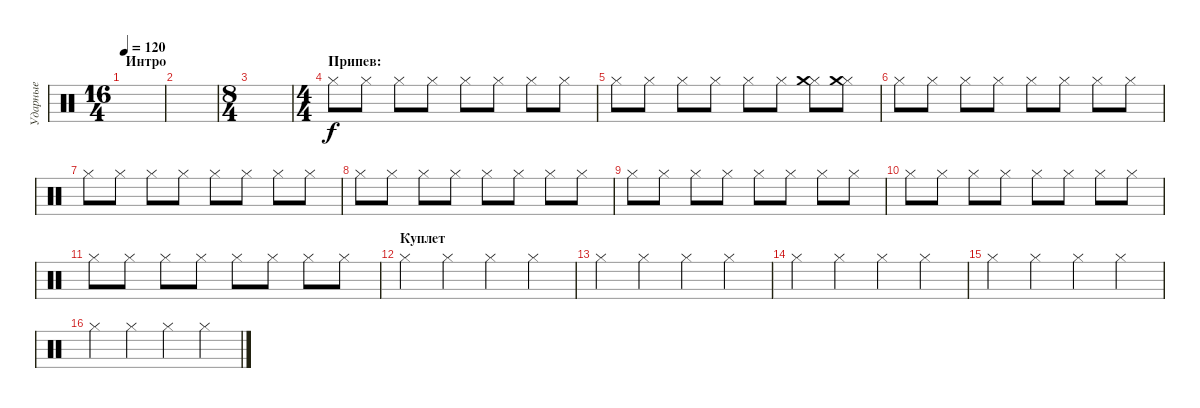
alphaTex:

\track ("Ударные" "Ударные") {instrument percussion}
\staff {score}
\articulation defaults
\ts (16 4)
\section ("" "Интро")
\tempo 120
\clef neutral
\ks c
|
|
\ts (8 4)
|
\ts (4 4)
\section ("" "Припев:")
"Hi-Hat (closed)".8 "Hi-Hat (closed)".8 "Hi-Hat (closed)".8 "Hi-Hat (closed)".8 "Hi-Hat (closed)".8 "Hi-Hat (closed)".8 "Hi-Hat (closed)".8 "Hi-Hat (closed)".8 |
"Hi-Hat (closed)".8 "Hi-Hat (closed)".8 "Hi-Hat (closed)".8 "Hi-Hat (closed)".8 "Hi-Hat (closed)".8 "Hi-Hat (closed)".8 ("Hi-Hat (closed)" "Crash medium (hit)").8 ("Hi-Hat (closed)" "Crash medium (hit)").8 |
"Hi-Hat (closed)".8 "Hi-Hat (closed)".8 "Hi-Hat (closed)".8 "Hi-Hat (closed)".8 "Hi-Hat (closed)".8 "Hi-Hat (closed)".8 "Hi-Hat (closed)".8 "Hi-Hat (closed)".8 |
"Hi-Hat (closed)".8 "Hi-Hat (closed)".8 "Hi-Hat (closed)".8 "Hi-Hat (closed)".8 "Hi-Hat (closed)".8 "Hi-Hat (closed)".8 "Hi-Hat (closed)".8 "Hi-Hat (closed)".8 |
"Hi-Hat (closed)".8 "Hi-Hat (closed)".8 "Hi-Hat (closed)".8 "Hi-Hat (closed)".8 "Hi-Hat (closed)".8 "Hi-Hat (closed)".8 "Hi-Hat (closed)".8 "Hi-Hat (closed)".8 |
"Hi-Hat (closed)".8 "Hi-Hat (closed)".8 "Hi-Hat (closed)".8 "Hi-Hat (closed)".8 "Hi-Hat (closed)".8 "Hi-Hat (closed)".8 "Hi-Hat (closed)".8 "Hi-Hat (closed)".8 |
"Hi-Hat (closed)".8 "Hi-Hat (closed)".8 "Hi-Hat (closed)".8 "Hi-Hat (closed)".8 "Hi-Hat (closed)".8 "Hi-Hat (closed)".8 "Hi-Hat (closed)".8 "Hi-Hat (closed)".8 |
"Hi-Hat (closed)".8 "Hi-Hat (closed)".8 "Hi-Hat (closed)".8 "Hi-Hat (closed)".8 "Hi-Hat (closed)".8 "Hi-Hat (closed)".8 "Hi-Hat (closed)".8 "Hi-Hat (closed)".8 |
\section ("" "Куплет")
"Hi-Hat (closed)".4 "Hi-Hat (closed)".4 "Hi-Hat (closed)".4 "Hi-Hat (closed)".4 |
"Hi-Hat (closed)".4 "Hi-Hat (closed)".4 "Hi-Hat (closed)".4 "Hi-Hat (closed)".4 |
"Hi-Hat (closed)".4 "Hi-Hat (closed)".4 "Hi-Hat (closed)".4 "Hi-Hat (closed)".4 |
"Hi-Hat (closed)".4 "Hi-Hat (closed)".4 "Hi-Hat (closed)".4 "Hi-Hat (closed)".4 |
"Hi-Hat (closed)".4 "Hi-Hat (closed)".4 "Hi-Hat (closed)".4 "Hi-Hat (closed)".4
